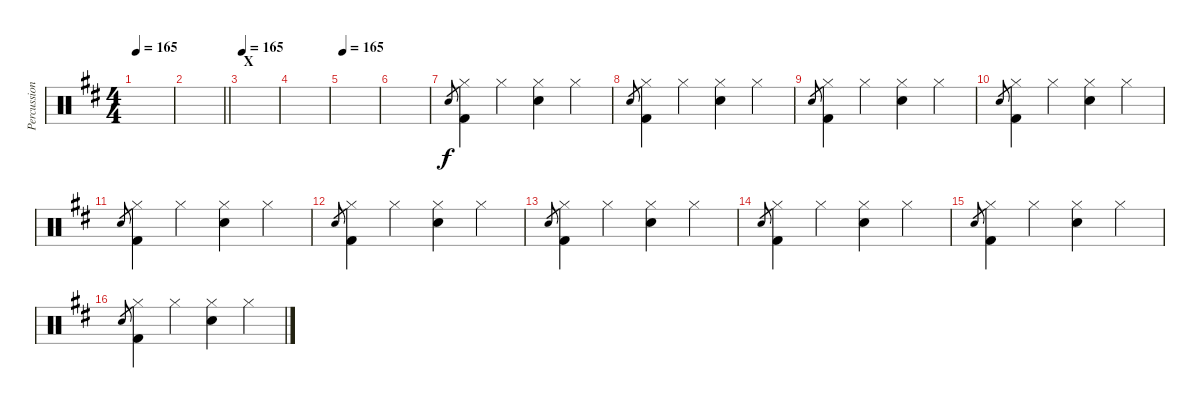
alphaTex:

\track ("Percussion [Nick Mason]" "Percussion") {instrument percussion}
\staff {score}
\articulation defaults
\ts (4 4)
\tempo 165
\clef neutral
\ks d
|
\barLineRight lightlight
|
\section ("" "X")
\tempo 165
|
|
\tempo 165
|
|
"Snare (hit) 2".8{gr} ("Hi-Hat (closed)" "Kick (hit) 2").4 "Hi-Hat (closed)".4 ("Hi-Hat (closed)" "Snare (hit) 2").4 "Hi-Hat (closed)".4 |
"Snare (hit) 2".8{gr} ("Hi-Hat (closed)" "Kick (hit) 2").4 "Hi-Hat (closed)".4 ("Hi-Hat (closed)" "Snare (hit) 2").4 "Hi-Hat (closed)".4 |
"Snare (hit) 2".8{gr} ("Hi-Hat (closed)" "Kick (hit) 2").4 "Hi-Hat (closed)".4 ("Hi-Hat (closed)" "Snare (hit) 2").4 "Hi-Hat (closed)".4 |
"Snare (hit) 2".8{gr} ("Hi-Hat (closed)" "Kick (hit) 2").4 "Hi-Hat (closed)".4 ("Hi-Hat (closed)" "Snare (hit) 2").4 "Hi-Hat (closed)".4 |
"Snare (hit) 2".8{gr} ("Hi-Hat (closed)" "Kick (hit) 2").4 "Hi-Hat (closed)".4 ("Hi-Hat (closed)" "Snare (hit) 2").4 "Hi-Hat (closed)".4 |
"Snare (hit) 2".8{gr} ("Hi-Hat (closed)" "Kick (hit) 2").4 "Hi-Hat (closed)".4 ("Hi-Hat (closed)" "Snare (hit) 2").4 "Hi-Hat (closed)".4 |
"Snare (hit) 2".8{gr} ("Hi-Hat (closed)" "Kick (hit) 2").4 "Hi-Hat (closed)".4 ("Hi-Hat (closed)" "Snare (hit) 2").4 "Hi-Hat (closed)".4 |
"Snare (hit) 2".8{gr} ("Hi-Hat (closed)" "Kick (hit) 2").4 "Hi-Hat (closed)".4 ("Hi-Hat (closed)" "Snare (hit) 2").4 "Hi-Hat (closed)".4 |
"Snare (hit) 2".8{gr} ("Hi-Hat (closed)" "Kick (hit) 2").4 "Hi-Hat (closed)".4 ("Hi-Hat (closed)" "Snare (hit) 2").4 "Hi-Hat (closed)".4 |
"Snare (hit) 2".8{gr} ("Hi-Hat (closed)" "Kick (hit) 2").4 "Hi-Hat (closed)".4 ("Hi-Hat (closed)" "Snare (hit) 2").4 "Hi-Hat (closed)".4
